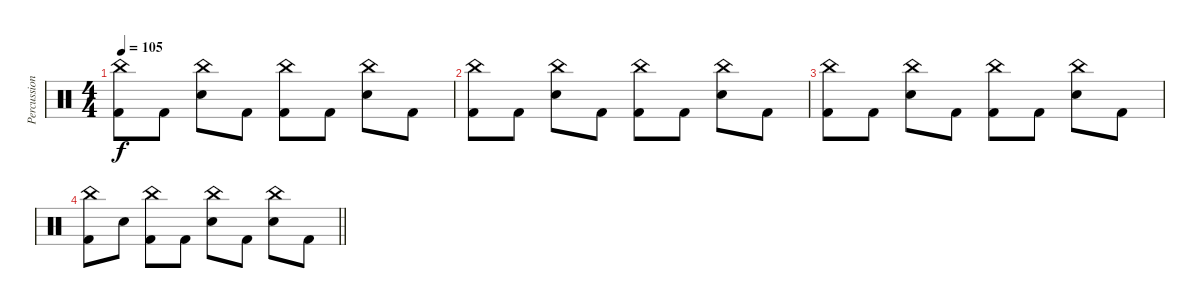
\track ("Percussions" "Percussion") {instrument percussion}
\staff {score}
\articulation defaults
\ts (4 4)
\tempo 105
\clef neutral
\ks c
("China (hit)" "Kick (hit) 2").8{dy f} "Kick (hit) 2".8 ("China (hit)" "Electric Snare (hit)").8 "Kick (hit) 2".8 ("China (hit)" "Kick (hit) 2").8 "Kick (hit) 2".8 ("China (hit)" "Electric Snare (hit)").8 "Kick (hit) 2".8 |
("China (hit)" "Kick (hit) 2").8 "Kick (hit) 2".8 ("China (hit)" "Electric Snare (hit)").8 "Kick (hit) 2".8 ("China (hit)" "Kick (hit) 2").8 "Kick (hit) 2".8 ("China (hit)" "Electric Snare (hit)").8 "Kick (hit) 2".8 |
("China (hit)" "Kick (hit) 2").8 "Kick (hit) 2".8 ("China (hit)" "Electric Snare (hit)").8 "Kick (hit) 2".8 ("China (hit)" "Kick (hit) 2").8 "Kick (hit) 2".8 ("China (hit)" "Electric Snare (hit)").8 "Kick (hit) 2".8 |
\barLineRight lightlight
("China (hit)" "Kick (hit) 2").8 "Electric Snare (hit)".8 ("China (hit)" "Kick (hit) 2").8 "Kick (hit) 2".8 ("China (hit)" "Electric Snare (hit)").8 "Kick (hit) 2".8 ("China (hit)" "Electric Snare (hit)").8 "Kick (hit) 2".8
